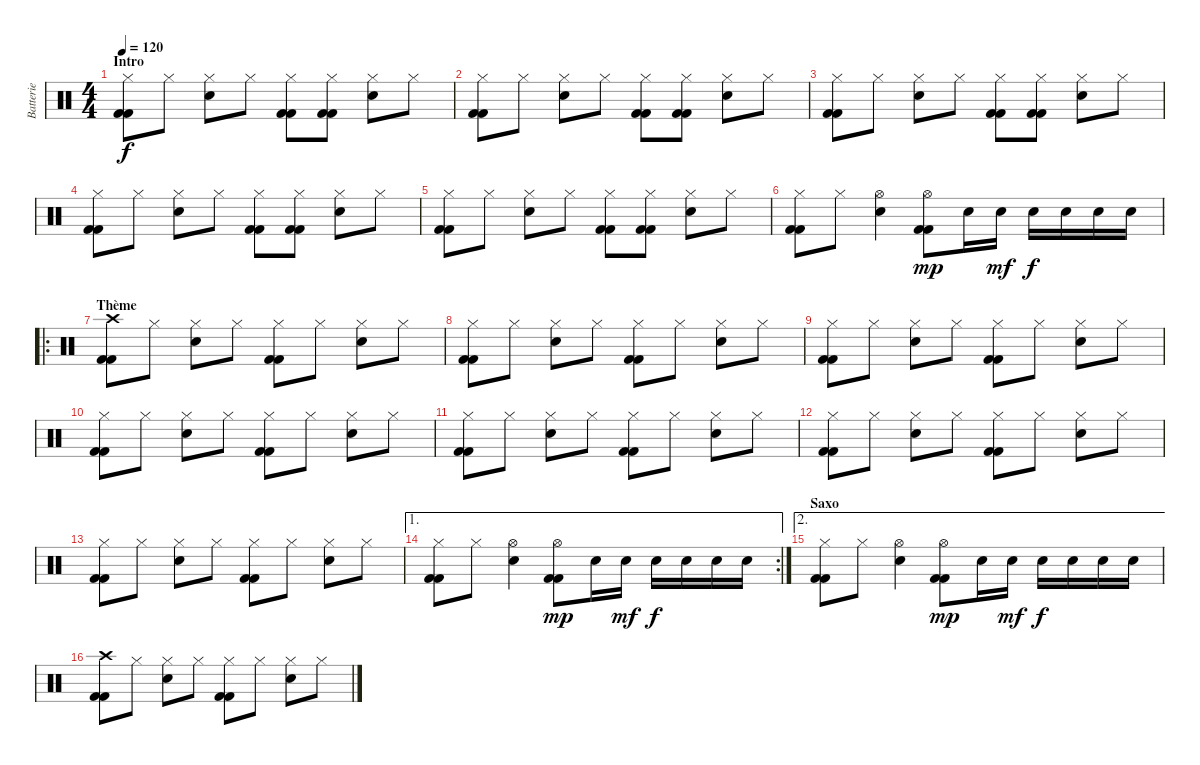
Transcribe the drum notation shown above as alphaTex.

\track ("Batterie" "Batterie") {instrument percussion}
\staff {score}
\articulation defaults
\ts (4 4)
\section ("" "Intro")
\tempo 120
\clef neutral
\ks c
("Hi-Hat (closed)" "Kick (hit) 2" "Kick (hit) 2").8{dy f} "Hi-Hat (closed)".8 ("Hi-Hat (closed)" "Snare (hit) 2").8 "Hi-Hat (closed)".8 ("Hi-Hat (closed)" "Kick (hit) 2" "Kick (hit) 2").8 ("Hi-Hat (closed)" "Kick (hit) 2" "Kick (hit) 2").8 ("Hi-Hat (closed)" "Snare (hit) 2").8 "Hi-Hat (closed)".8 |
("Hi-Hat (closed)" "Kick (hit) 2" "Kick (hit) 2").8 "Hi-Hat (closed)".8 ("Hi-Hat (closed)" "Snare (hit) 2").8 "Hi-Hat (closed)".8 ("Hi-Hat (closed)" "Kick (hit) 2" "Kick (hit) 2").8 ("Hi-Hat (closed)" "Kick (hit) 2" "Kick (hit) 2").8 ("Hi-Hat (closed)" "Snare (hit) 2").8 "Hi-Hat (closed)".8 |
("Hi-Hat (closed)" "Kick (hit) 2" "Kick (hit) 2").8 "Hi-Hat (closed)".8 ("Hi-Hat (closed)" "Snare (hit) 2").8 "Hi-Hat (closed)".8 ("Hi-Hat (closed)" "Kick (hit) 2" "Kick (hit) 2").8 ("Hi-Hat (closed)" "Kick (hit) 2" "Kick (hit) 2").8 ("Hi-Hat (closed)" "Snare (hit) 2").8 "Hi-Hat (closed)".8 |
("Hi-Hat (closed)" "Kick (hit) 2" "Kick (hit) 2").8 "Hi-Hat (closed)".8 ("Hi-Hat (closed)" "Snare (hit) 2").8 "Hi-Hat (closed)".8 ("Hi-Hat (closed)" "Kick (hit) 2" "Kick (hit) 2").8 ("Hi-Hat (closed)" "Kick (hit) 2" "Kick (hit) 2").8 ("Hi-Hat (closed)" "Snare (hit) 2").8 "Hi-Hat (closed)".8 |
("Hi-Hat (closed)" "Kick (hit) 2" "Kick (hit) 2").8 "Hi-Hat (closed)".8 ("Hi-Hat (closed)" "Snare (hit) 2").8 "Hi-Hat (closed)".8 ("Hi-Hat (closed)" "Kick (hit) 2" "Kick (hit) 2").8 ("Hi-Hat (closed)" "Kick (hit) 2" "Kick (hit) 2").8 ("Hi-Hat (closed)" "Snare (hit) 2").8 "Hi-Hat (closed)".8 |
("Hi-Hat (closed)" "Kick (hit) 2" "Kick (hit) 2").8 "Hi-Hat (closed)".8 ("Hi-Hat (open)" "Snare (hit) 2").4 ("Hi-Hat (open)" "Kick (hit) 2" "Kick (hit) 2").8{dy mp} "Snare (hit) 2".16 "Snare (hit) 2".16{dy mf} "Snare (hit) 2".16{dy f} "Snare (hit) 2".16 "Snare (hit) 2".16 "Snare (hit) 2".16 |
\ro
\section ("" "Thème")
("Crash high (hit)" "Kick (hit) 2" "Kick (hit) 2").8 "Hi-Hat (closed)".8 ("Hi-Hat (closed)" "Snare (hit) 2").8 "Hi-Hat (closed)".8 ("Hi-Hat (closed)" "Kick (hit) 2" "Kick (hit) 2").8 "Hi-Hat (closed)".8 ("Hi-Hat (closed)" "Snare (hit) 2").8 "Hi-Hat (closed)".8 |
("Hi-Hat (closed)" "Kick (hit) 2" "Kick (hit) 2").8 "Hi-Hat (closed)".8 ("Hi-Hat (closed)" "Snare (hit) 2").8 "Hi-Hat (closed)".8 ("Hi-Hat (closed)" "Kick (hit) 2" "Kick (hit) 2").8 "Hi-Hat (closed)".8 ("Hi-Hat (closed)" "Snare (hit) 2").8 "Hi-Hat (closed)".8 |
("Hi-Hat (closed)" "Kick (hit) 2" "Kick (hit) 2").8 "Hi-Hat (closed)".8 ("Hi-Hat (closed)" "Snare (hit) 2").8 "Hi-Hat (closed)".8 ("Hi-Hat (closed)" "Kick (hit) 2" "Kick (hit) 2").8 "Hi-Hat (closed)".8 ("Hi-Hat (closed)" "Snare (hit) 2").8 "Hi-Hat (closed)".8 |
("Hi-Hat (closed)" "Kick (hit) 2" "Kick (hit) 2").8 "Hi-Hat (closed)".8 ("Hi-Hat (closed)" "Snare (hit) 2").8 "Hi-Hat (closed)".8 ("Hi-Hat (closed)" "Kick (hit) 2" "Kick (hit) 2").8 "Hi-Hat (closed)".8 ("Hi-Hat (closed)" "Snare (hit) 2").8 "Hi-Hat (closed)".8 |
("Hi-Hat (closed)" "Kick (hit) 2" "Kick (hit) 2").8 "Hi-Hat (closed)".8 ("Hi-Hat (closed)" "Snare (hit) 2").8 "Hi-Hat (closed)".8 ("Hi-Hat (closed)" "Kick (hit) 2" "Kick (hit) 2").8 "Hi-Hat (closed)".8 ("Hi-Hat (closed)" "Snare (hit) 2").8 "Hi-Hat (closed)".8 |
("Hi-Hat (closed)" "Kick (hit) 2" "Kick (hit) 2").8 "Hi-Hat (closed)".8 ("Hi-Hat (closed)" "Snare (hit) 2").8 "Hi-Hat (closed)".8 ("Hi-Hat (closed)" "Kick (hit) 2" "Kick (hit) 2").8 "Hi-Hat (closed)".8 ("Hi-Hat (closed)" "Snare (hit) 2").8 "Hi-Hat (closed)".8 |
("Hi-Hat (closed)" "Kick (hit) 2" "Kick (hit) 2").8 "Hi-Hat (closed)".8 ("Hi-Hat (closed)" "Snare (hit) 2").8 "Hi-Hat (closed)".8 ("Hi-Hat (closed)" "Kick (hit) 2" "Kick (hit) 2").8 "Hi-Hat (closed)".8 ("Hi-Hat (closed)" "Snare (hit) 2").8 "Hi-Hat (closed)".8 |
\ae 1
\rc 2
("Hi-Hat (closed)" "Kick (hit) 2" "Kick (hit) 2").8 "Hi-Hat (closed)".8 ("Hi-Hat (open)" "Snare (hit) 2").4 ("Hi-Hat (open)" "Kick (hit) 2" "Kick (hit) 2").8{dy mp} "Snare (hit) 2".16 "Snare (hit) 2".16{dy mf} "Snare (hit) 2".16{dy f} "Snare (hit) 2".16 "Snare (hit) 2".16 "Snare (hit) 2".16 |
\ae 2
\section ("" "Saxo")
("Hi-Hat (closed)" "Kick (hit) 2" "Kick (hit) 2").8 "Hi-Hat (closed)".8 ("Hi-Hat (open)" "Snare (hit) 2").4 ("Hi-Hat (open)" "Kick (hit) 2" "Kick (hit) 2").8{dy mp} "Snare (hit) 2".16 "Snare (hit) 2".16{dy mf} "Snare (hit) 2".16{dy f} "Snare (hit) 2".16 "Snare (hit) 2".16 "Snare (hit) 2".16 |
("Crash high (hit)" "Kick (hit) 2" "Kick (hit) 2").8 "Hi-Hat (closed)".8 ("Hi-Hat (closed)" "Snare (hit) 2").8 "Hi-Hat (closed)".8 ("Hi-Hat (closed)" "Kick (hit) 2" "Kick (hit) 2").8 "Hi-Hat (closed)".8 ("Hi-Hat (closed)" "Snare (hit) 2").8 "Hi-Hat (closed)".8
